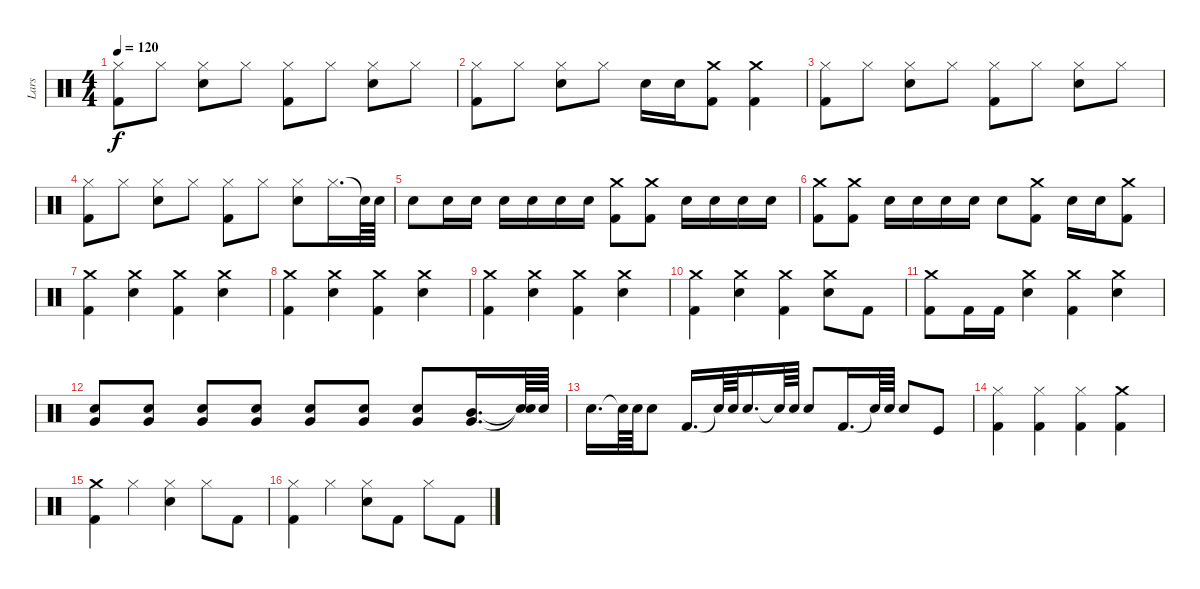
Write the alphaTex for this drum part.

\track ("Lars" "Lars") {instrument percussion}
\staff {score}
\articulation defaults
\ts (4 4)
\tempo 120
\clef neutral
\ks c
("Kick (hit) 2" "Hi-Hat (closed)").8{dy f} "Hi-Hat (closed)".8 ("Snare (hit) 2" "Hi-Hat (closed)").8 "Hi-Hat (closed)".8 ("Kick (hit) 2" "Hi-Hat (closed)").8 "Hi-Hat (closed)".8 ("Snare (hit) 2" "Hi-Hat (closed)").8 "Hi-Hat (closed)".8 |
("Kick (hit) 2" "Hi-Hat (closed)").8 "Hi-Hat (closed)".8 ("Snare (hit) 2" "Hi-Hat (closed)").8 "Hi-Hat (closed)".8 "Snare (hit) 2".16 "Snare (hit) 2".16 ("Crash medium (hit)" "Kick (hit) 2").8 ("Crash medium (hit)" "Kick (hit) 2").4 |
("Kick (hit) 2" "Hi-Hat (closed)").8 "Hi-Hat (closed)".8 ("Snare (hit) 2" "Hi-Hat (closed)").8 "Hi-Hat (closed)".8 ("Kick (hit) 2" "Hi-Hat (closed)").8 "Hi-Hat (closed)".8 ("Snare (hit) 2" "Hi-Hat (closed)").8 "Hi-Hat (closed)".8 |
("Kick (hit) 2" "Hi-Hat (closed)").8 "Hi-Hat (closed)".8 ("Snare (hit) 2" "Hi-Hat (closed)").8 "Hi-Hat (closed)".8 ("Kick (hit) 2" "Hi-Hat (closed)").8 "Hi-Hat (closed)".8 ("Snare (hit) 2" "Hi-Hat (closed)").8 "Hi-Hat (closed)".16{d} "Snare (hit)"{t}.64 "Snare (hit) 2".64 |
"Snare (hit) 2".8 "Snare (hit) 2".16 "Snare (hit) 2".16 "Snare (hit) 2".16 "Snare (hit) 2".16 "Snare (hit) 2".16 "Snare (hit) 2".16 ("Kick (hit) 2" "Crash medium (hit)").8 ("Kick (hit) 2" "Crash medium (hit)").8 "Snare (hit) 2".16 "Snare (hit) 2".16 "Snare (hit) 2".16 "Snare (hit) 2".16 |
("Kick (hit) 2" "Crash medium (hit)").8 ("Kick (hit) 2" "Crash medium (hit)").8 "Snare (hit) 2".16 "Snare (hit) 2".16 "Snare (hit) 2".16 "Snare (hit) 2".16 "Snare (hit) 2".8 ("Kick (hit) 2" "Crash medium (hit)").8 "Snare (hit) 2".16 "Snare (hit) 2".16 ("Crash medium (hit)" "Kick (hit) 2").8 |
("Kick (hit) 2" "Crash medium (hit)").4 ("Snare (hit) 2" "Crash medium (hit)").4 ("Kick (hit) 2" "Crash medium (hit)").4 ("Snare (hit) 2" "Crash medium (hit)").4 |
("Kick (hit) 2" "Crash medium (hit)").4 ("Snare (hit) 2" "Crash medium (hit)").4 ("Kick (hit) 2" "Crash medium (hit)").4 ("Snare (hit) 2" "Crash medium (hit)").4 |
("Kick (hit) 2" "Crash medium (hit)").4 ("Snare (hit) 2" "Crash medium (hit)").4 ("Kick (hit) 2" "Crash medium (hit)").4 ("Snare (hit) 2" "Crash medium (hit)").4 |
("Kick (hit) 2" "Crash medium (hit)").4 ("Snare (hit) 2" "Crash medium (hit)").4 ("Kick (hit) 2" "Crash medium (hit)").4 ("Snare (hit) 2" "Crash medium (hit)").8 "Kick (hit) 2".8 |
("Kick (hit) 2" "Crash medium (hit)").8 "Kick (hit) 2".16 "Kick (hit) 2".16 ("Snare (hit) 2" "Crash medium (hit)").4 ("Kick (hit) 2" "Crash medium (hit)").4 ("Snare (hit) 2" "Crash medium (hit)").4 |
("Very Low Tom (hit)" "Snare (hit) 2").8 ("Very Low Tom (hit)" "Snare (hit) 2").8 ("Very Low Tom (hit)" "Snare (hit) 2").8 ("Very Low Tom (hit)" "Snare (hit) 2").8 ("Very Low Tom (hit)" "Snare (hit) 2").8 ("Very Low Tom (hit)" "Snare (hit) 2").8 ("Very Low Tom (hit)" "Snare (hit) 2").8 ("Very Low Tom (hit)" "Mid Tom (hit)").16{d} ("Snare (hit)"{t} "Snare (hit)"{t}).64 "Snare (hit) 2".64 |
"Snare (hit) 2".16{d} "Snare (hit)"{t}.64 "Snare (hit) 2".64 "Snare (hit) 2".8 "Kick (hit) 2".16{d} "Snare (hit)"{t}.64 "Snare (hit) 2".64 "Snare (hit) 2".16{d} "Snare (hit)"{t}.64 "Snare (hit) 2".64 "Snare (hit) 2".8 "Kick (hit) 2".16{d} "Snare (hit)"{t}.64 "Snare (hit) 2".64 "Snare (hit) 2".8 "Kick (hit)".8 |
("Kick (hit) 2" "Hi-Hat (closed)").4 ("Kick (hit) 2" "Hi-Hat (closed)").4 ("Kick (hit) 2" "Hi-Hat (closed)").4 ("Kick (hit) 2" "Crash medium (hit)").4 |
("Crash medium (hit)" "Kick (hit) 2").4 "Hi-Hat (closed)".4 ("Snare (hit) 2" "Hi-Hat (closed)").4 "Hi-Hat (closed)".8 "Kick (hit) 2".8 |
("Kick (hit) 2" "Hi-Hat (closed)").4 "Hi-Hat (closed)".4 ("Snare (hit) 2" "Hi-Hat (closed)").8 "Kick (hit) 2".8 "Hi-Hat (closed)".8 "Kick (hit) 2".8
